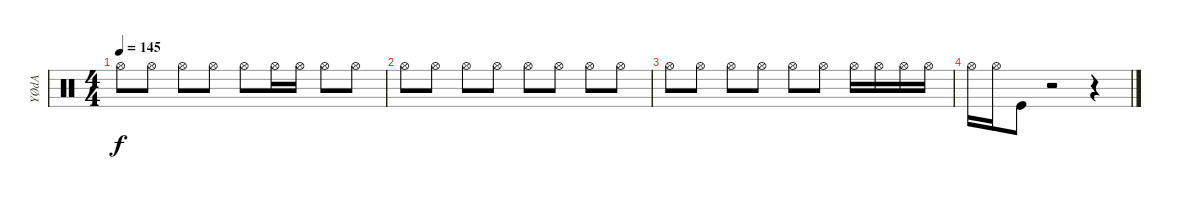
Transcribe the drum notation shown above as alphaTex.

\track ("YØdA" "YØdA") {instrument percussion}
\staff {score}
\articulation defaults
\ts (4 4)
\tempo 145
\clef neutral
\ks c "Hi-Hat (open)".8{dy f} "Hi-Hat (open)".8 "Hi-Hat (open)".8 "Hi-Hat (open)".8 "Hi-Hat (open)".8 "Hi-Hat (open)".16 "Hi-Hat (open)".16 "Hi-Hat (open)".8 "Hi-Hat (open)".8
|
"Hi-Hat (open)".8 "Hi-Hat (open)".8 "Hi-Hat (open)".8 "Hi-Hat (open)".8 "Hi-Hat (open)".8 "Hi-Hat (open)".8 "Hi-Hat (open)".8 "Hi-Hat (open)".8 |
"Hi-Hat (open)".8 "Hi-Hat (open)".8 "Hi-Hat (open)".8 "Hi-Hat (open)".8 "Hi-Hat (open)".8 "Hi-Hat (open)".8 "Hi-Hat (open)".16 "Hi-Hat (open)".16 "Hi-Hat (open)".16 "Hi-Hat (open)".16 |
"Hi-Hat (open)".16 "Hi-Hat (open)".16 "Kick (hit)".8 r.2 r.4
